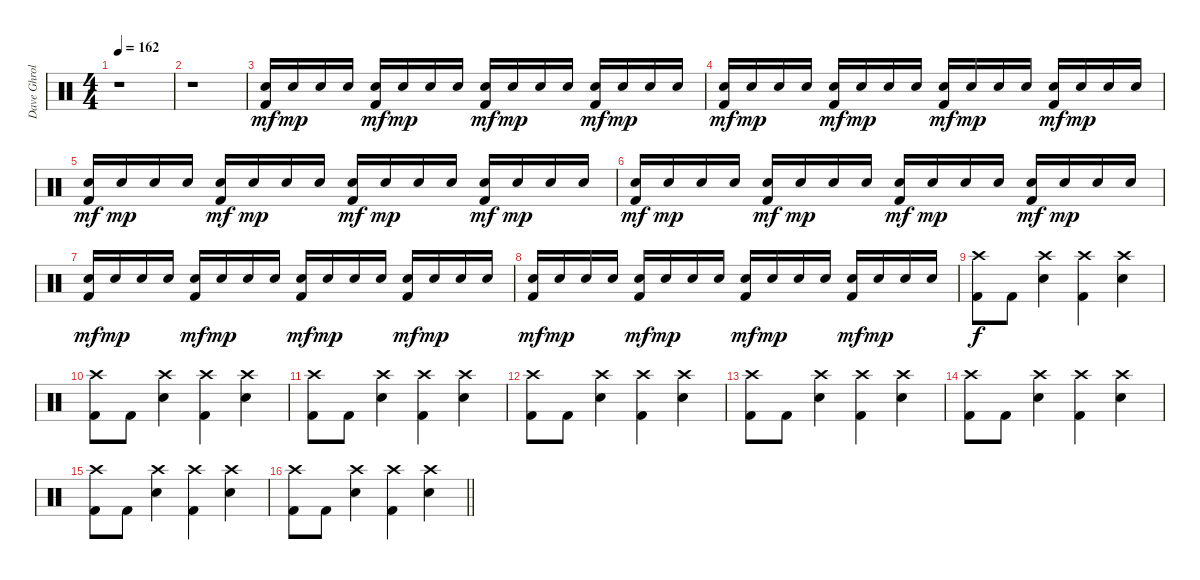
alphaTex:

\track ("Dave Ghrol" "Dave Ghrol") {instrument percussion}
\staff {score}
\articulation defaults
\ts (4 4)
\tempo 162
\clef neutral
\ks c
r.1{dy mf} |
r.1 |
("Electric Snare (hit)" "Kick (hit) 2").16 "Electric Snare (hit)".16{dy mp} "Electric Snare (hit)".16 "Electric Snare (hit)".16 ("Electric Snare (hit)" "Kick (hit) 2").16{dy mf} "Electric Snare (hit)".16{dy mp} "Electric Snare (hit)".16 "Electric Snare (hit)".16 ("Electric Snare (hit)" "Kick (hit) 2").16{dy mf} "Electric Snare (hit)".16{dy mp} "Electric Snare (hit)".16 "Electric Snare (hit)".16 ("Electric Snare (hit)" "Kick (hit) 2").16{dy mf} "Electric Snare (hit)".16{dy mp} "Electric Snare (hit)".16 "Electric Snare (hit)".16 |
("Electric Snare (hit)" "Kick (hit) 2").16{dy mf} "Electric Snare (hit)".16{dy mp} "Electric Snare (hit)".16 "Electric Snare (hit)".16 ("Electric Snare (hit)" "Kick (hit) 2").16{dy mf} "Electric Snare (hit)".16{dy mp} "Electric Snare (hit)".16 "Electric Snare (hit)".16 ("Electric Snare (hit)" "Kick (hit) 2").16{dy mf} "Electric Snare (hit)".16{dy mp} "Electric Snare (hit)".16 "Electric Snare (hit)".16 ("Electric Snare (hit)" "Kick (hit) 2").16{dy mf} "Electric Snare (hit)".16{dy mp} "Electric Snare (hit)".16 "Electric Snare (hit)".16 |
("Electric Snare (hit)" "Kick (hit) 2").16{dy mf} "Electric Snare (hit)".16{dy mp} "Electric Snare (hit)".16 "Electric Snare (hit)".16 ("Electric Snare (hit)" "Kick (hit) 2").16{dy mf} "Electric Snare (hit)".16{dy mp} "Electric Snare (hit)".16 "Electric Snare (hit)".16 ("Electric Snare (hit)" "Kick (hit) 2").16{dy mf} "Electric Snare (hit)".16{dy mp} "Electric Snare (hit)".16 "Electric Snare (hit)".16 ("Electric Snare (hit)" "Kick (hit) 2").16{dy mf} "Electric Snare (hit)".16{dy mp} "Electric Snare (hit)".16 "Electric Snare (hit)".16 |
("Electric Snare (hit)" "Kick (hit) 2").16{dy mf} "Electric Snare (hit)".16{dy mp} "Electric Snare (hit)".16 "Electric Snare (hit)".16 ("Electric Snare (hit)" "Kick (hit) 2").16{dy mf} "Electric Snare (hit)".16{dy mp} "Electric Snare (hit)".16 "Electric Snare (hit)".16 ("Electric Snare (hit)" "Kick (hit) 2").16{dy mf} "Electric Snare (hit)".16{dy mp} "Electric Snare (hit)".16 "Electric Snare (hit)".16 ("Electric Snare (hit)" "Kick (hit) 2").16{dy mf} "Electric Snare (hit)".16{dy mp} "Electric Snare (hit)".16 "Electric Snare (hit)".16 |
("Electric Snare (hit)" "Kick (hit) 2").16{dy mf} "Electric Snare (hit)".16{dy mp} "Electric Snare (hit)".16 "Electric Snare (hit)".16 ("Electric Snare (hit)" "Kick (hit) 2").16{dy mf} "Electric Snare (hit)".16{dy mp} "Electric Snare (hit)".16 "Electric Snare (hit)".16 ("Electric Snare (hit)" "Kick (hit) 2").16{dy mf} "Electric Snare (hit)".16{dy mp} "Electric Snare (hit)".16 "Electric Snare (hit)".16 ("Electric Snare (hit)" "Kick (hit) 2").16{dy mf} "Electric Snare (hit)".16{dy mp} "Electric Snare (hit)".16 "Electric Snare (hit)".16 |
("Electric Snare (hit)" "Kick (hit) 2").16{dy mf} "Electric Snare (hit)".16{dy mp} "Electric Snare (hit)".16 "Electric Snare (hit)".16 ("Electric Snare (hit)" "Kick (hit) 2").16{dy mf} "Electric Snare (hit)".16{dy mp} "Electric Snare (hit)".16 "Electric Snare (hit)".16 ("Electric Snare (hit)" "Kick (hit) 2").16{dy mf} "Electric Snare (hit)".16{dy mp} "Electric Snare (hit)".16 "Electric Snare (hit)".16 ("Electric Snare (hit)" "Kick (hit) 2").16{dy mf} "Electric Snare (hit)".16{dy mp} "Electric Snare (hit)".16 "Electric Snare (hit)".16 |
("Crash high (hit)" "Kick (hit) 2").8{dy f} "Kick (hit) 2".8 ("Crash high (hit)" "Snare (hit) 2").4 ("Crash high (hit)" "Kick (hit) 2").4 ("Crash high (hit)" "Snare (hit) 2").4 |
("Crash high (hit)" "Kick (hit) 2").8 "Kick (hit) 2".8 ("Crash high (hit)" "Snare (hit) 2").4 ("Crash high (hit)" "Kick (hit) 2").4 ("Crash high (hit)" "Snare (hit) 2").4 |
("Crash high (hit)" "Kick (hit) 2").8 "Kick (hit) 2".8 ("Crash high (hit)" "Snare (hit) 2").4 ("Crash high (hit)" "Kick (hit) 2").4 ("Crash high (hit)" "Snare (hit) 2").4 |
("Crash high (hit)" "Kick (hit) 2").8 "Kick (hit) 2".8 ("Crash high (hit)" "Snare (hit) 2").4 ("Crash high (hit)" "Kick (hit) 2").4 ("Crash high (hit)" "Snare (hit) 2").4 |
("Crash high (hit)" "Kick (hit) 2").8 "Kick (hit) 2".8 ("Crash high (hit)" "Snare (hit) 2").4 ("Crash high (hit)" "Kick (hit) 2").4 ("Crash high (hit)" "Snare (hit) 2").4 |
("Crash high (hit)" "Kick (hit) 2").8 "Kick (hit) 2".8 ("Crash high (hit)" "Snare (hit) 2").4 ("Crash high (hit)" "Kick (hit) 2").4 ("Crash high (hit)" "Snare (hit) 2").4 |
("Crash high (hit)" "Kick (hit) 2").8 "Kick (hit) 2".8 ("Crash high (hit)" "Snare (hit) 2").4 ("Crash high (hit)" "Kick (hit) 2").4 ("Crash high (hit)" "Snare (hit) 2").4 |
\barLineRight lightlight
("Crash high (hit)" "Kick (hit) 2").8 "Kick (hit) 2".8 ("Crash high (hit)" "Snare (hit) 2").4 ("Crash high (hit)" "Kick (hit) 2").4 ("Crash high (hit)" "Snare (hit) 2").4
